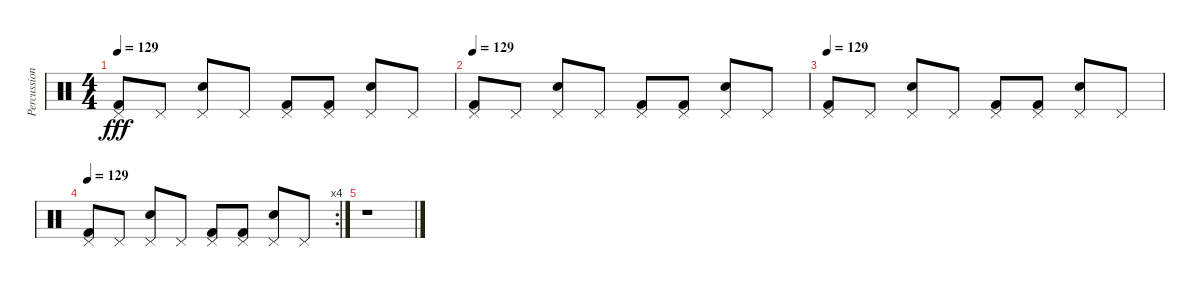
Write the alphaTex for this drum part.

\track ("Percussions" "Percussion") {instrument percussion}
\staff {score}
\articulation defaults
\ts (4 4)
\tempo 129
\clef neutral
\ks c
("Pedal Hi-Hat (hit)" "Kick (hit) 2").8{dy fff} "Pedal Hi-Hat (hit)".8 ("Pedal Hi-Hat (hit)" "Electric Snare (hit)").8 "Pedal Hi-Hat (hit)".8 ("Pedal Hi-Hat (hit)" "Kick (hit) 2").8 ("Pedal Hi-Hat (hit)" "Kick (hit) 2").8 ("Pedal Hi-Hat (hit)" "Electric Snare (hit)").8 "Pedal Hi-Hat (hit)".8 |
\tempo 129
("Pedal Hi-Hat (hit)" "Kick (hit) 2").8 "Pedal Hi-Hat (hit)".8 ("Pedal Hi-Hat (hit)" "Electric Snare (hit)").8 "Pedal Hi-Hat (hit)".8 ("Pedal Hi-Hat (hit)" "Kick (hit) 2").8 ("Pedal Hi-Hat (hit)" "Kick (hit) 2").8 ("Pedal Hi-Hat (hit)" "Electric Snare (hit)").8 "Pedal Hi-Hat (hit)".8 |
\tempo 129
("Pedal Hi-Hat (hit)" "Kick (hit) 2").8 "Pedal Hi-Hat (hit)".8 ("Pedal Hi-Hat (hit)" "Electric Snare (hit)").8 "Pedal Hi-Hat (hit)".8 ("Pedal Hi-Hat (hit)" "Kick (hit) 2").8 ("Pedal Hi-Hat (hit)" "Kick (hit) 2").8 ("Pedal Hi-Hat (hit)" "Electric Snare (hit)").8 "Pedal Hi-Hat (hit)".8 |
\rc 4
\tempo 129
("Pedal Hi-Hat (hit)" "Kick (hit) 2").8 "Pedal Hi-Hat (hit)".8 ("Pedal Hi-Hat (hit)" "Electric Snare (hit)").8 "Pedal Hi-Hat (hit)".8 ("Pedal Hi-Hat (hit)" "Kick (hit) 2").8 ("Pedal Hi-Hat (hit)" "Kick (hit) 2").8 ("Pedal Hi-Hat (hit)" "Electric Snare (hit)").8 "Pedal Hi-Hat (hit)".8 |
r.1
